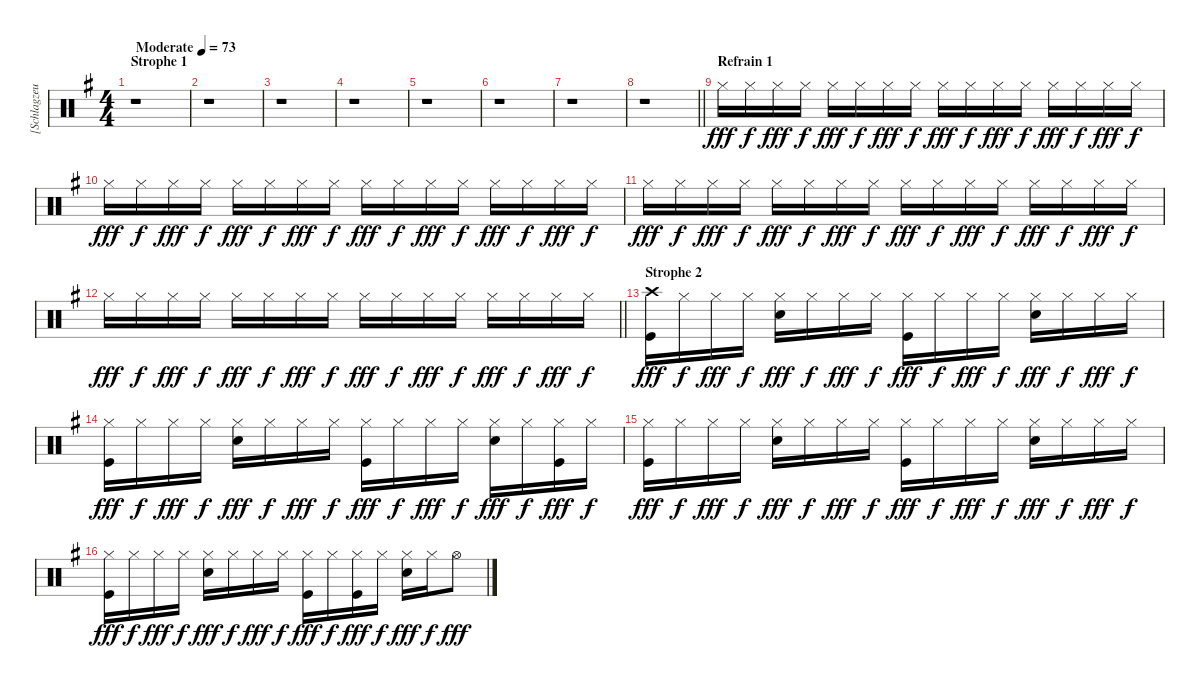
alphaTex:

\track ("[Schlagzeug]" "[Schlagzeu") {instrument percussion}
\staff {score}
\articulation defaults
\ts (4 4)
\section ("" "Strophe 1")
\tempo (73 "Moderate")
\clef neutral
\ks eminor
r.1{dy fff} |
r.1 |
r.1 |
r.1 |
r.1 |
r.1 |
r.1 |
\barLineRight lightlight
r.1 |
\section ("" "Refrain 1")
"Hi-Hat (closed)".16 "Hi-Hat (closed)".16{dy f} "Hi-Hat (closed)".16{dy fff} "Hi-Hat (closed)".16{dy f} "Hi-Hat (closed)".16{dy fff} "Hi-Hat (closed)".16{dy f} "Hi-Hat (closed)".16{dy fff} "Hi-Hat (closed)".16{dy f} "Hi-Hat (closed)".16{dy fff} "Hi-Hat (closed)".16{dy f} "Hi-Hat (closed)".16{dy fff} "Hi-Hat (closed)".16{dy f} "Hi-Hat (closed)".16{dy fff} "Hi-Hat (closed)".16{dy f} "Hi-Hat (closed)".16{dy fff} "Hi-Hat (closed)".16{dy f} |
"Hi-Hat (closed)".16{dy fff} "Hi-Hat (closed)".16{dy f} "Hi-Hat (closed)".16{dy fff} "Hi-Hat (closed)".16{dy f} "Hi-Hat (closed)".16{dy fff} "Hi-Hat (closed)".16{dy f} "Hi-Hat (closed)".16{dy fff} "Hi-Hat (closed)".16{dy f} "Hi-Hat (closed)".16{dy fff} "Hi-Hat (closed)".16{dy f} "Hi-Hat (closed)".16{dy fff} "Hi-Hat (closed)".16{dy f} "Hi-Hat (closed)".16{dy fff} "Hi-Hat (closed)".16{dy f} "Hi-Hat (closed)".16{dy fff} "Hi-Hat (closed)".16{dy f} |
"Hi-Hat (closed)".16{dy fff} "Hi-Hat (closed)".16{dy f} "Hi-Hat (closed)".16{dy fff} "Hi-Hat (closed)".16{dy f} "Hi-Hat (closed)".16{dy fff} "Hi-Hat (closed)".16{dy f} "Hi-Hat (closed)".16{dy fff} "Hi-Hat (closed)".16{dy f} "Hi-Hat (closed)".16{dy fff} "Hi-Hat (closed)".16{dy f} "Hi-Hat (closed)".16{dy fff} "Hi-Hat (closed)".16{dy f} "Hi-Hat (closed)".16{dy fff} "Hi-Hat (closed)".16{dy f} "Hi-Hat (closed)".16{dy fff} "Hi-Hat (closed)".16{dy f} |
\barLineRight lightlight "Hi-Hat (closed)".16{dy fff} "Hi-Hat (closed)".16{dy f} "Hi-Hat (closed)".16{dy fff} "Hi-Hat (closed)".16{dy f} "Hi-Hat (closed)".16{dy fff} "Hi-Hat (closed)".16{dy f} "Hi-Hat (closed)".16{dy fff} "Hi-Hat (closed)".16{dy f} "Hi-Hat (closed)".16{dy fff} "Hi-Hat (closed)".16{dy f} "Hi-Hat (closed)".16{dy fff} "Hi-Hat (closed)".16{dy f} "Hi-Hat (closed)".16{dy fff} "Hi-Hat (closed)".16{dy f} "Hi-Hat (closed)".16{dy fff} "Hi-Hat (closed)".16{dy f}
|
\section ("" "Strophe 2")
("Crash high (hit)" "Kick (hit)").16{dy fff} "Hi-Hat (closed)".16{dy f} "Hi-Hat (closed)".16{dy fff} "Hi-Hat (closed)".16{dy f} ("Hi-Hat (closed)" "Electric Snare (hit)").16{dy fff} "Hi-Hat (closed)".16{dy f} "Hi-Hat (closed)".16{dy fff} "Hi-Hat (closed)".16{dy f} ("Hi-Hat (closed)" "Kick (hit)").16{dy fff} "Hi-Hat (closed)".16{dy f} "Hi-Hat (closed)".16{dy fff} "Hi-Hat (closed)".16{dy f} ("Hi-Hat (closed)" "Electric Snare (hit)").16{dy fff} "Hi-Hat (closed)".16{dy f} "Hi-Hat (closed)".16{dy fff} "Hi-Hat (closed)".16{dy f} |
("Hi-Hat (closed)" "Kick (hit)").16{dy fff} "Hi-Hat (closed)".16{dy f} "Hi-Hat (closed)".16{dy fff} "Hi-Hat (closed)".16{dy f} ("Hi-Hat (closed)" "Electric Snare (hit)").16{dy fff} "Hi-Hat (closed)".16{dy f} "Hi-Hat (closed)".16{dy fff} "Hi-Hat (closed)".16{dy f} ("Hi-Hat (closed)" "Kick (hit)").16{dy fff} "Hi-Hat (closed)".16{dy f} "Hi-Hat (closed)".16{dy fff} "Hi-Hat (closed)".16{dy f} ("Hi-Hat (closed)" "Electric Snare (hit)").16{dy fff} "Hi-Hat (closed)".16{dy f} ("Hi-Hat (closed)" "Kick (hit)").16{dy fff} "Hi-Hat (closed)".16{dy f} |
("Hi-Hat (closed)" "Kick (hit)").16{dy fff} "Hi-Hat (closed)".16{dy f} "Hi-Hat (closed)".16{dy fff} "Hi-Hat (closed)".16{dy f} ("Hi-Hat (closed)" "Electric Snare (hit)").16{dy fff} "Hi-Hat (closed)".16{dy f} "Hi-Hat (closed)".16{dy fff} "Hi-Hat (closed)".16{dy f} ("Hi-Hat (closed)" "Kick (hit)").16{dy fff} "Hi-Hat (closed)".16{dy f} "Hi-Hat (closed)".16{dy fff} "Hi-Hat (closed)".16{dy f} ("Hi-Hat (closed)" "Electric Snare (hit)").16{dy fff} "Hi-Hat (closed)".16{dy f} "Hi-Hat (closed)".16{dy fff} "Hi-Hat (closed)".16{dy f} |
("Hi-Hat (closed)" "Kick (hit)").16{dy fff} "Hi-Hat (closed)".16{dy f} "Hi-Hat (closed)".16{dy fff} "Hi-Hat (closed)".16{dy f} ("Hi-Hat (closed)" "Electric Snare (hit)").16{dy fff} "Hi-Hat (closed)".16{dy f} "Hi-Hat (closed)".16{dy fff} "Hi-Hat (closed)".16{dy f} ("Hi-Hat (closed)" "Kick (hit)").16{dy fff} "Hi-Hat (closed)".16{dy f} ("Hi-Hat (closed)" "Kick (hit)").16{dy fff} "Hi-Hat (closed)".16{dy f} ("Hi-Hat (closed)" "Electric Snare (hit)").16{dy fff} "Hi-Hat (closed)".16{dy f} "Hi-Hat (open)".8{dy fff}
